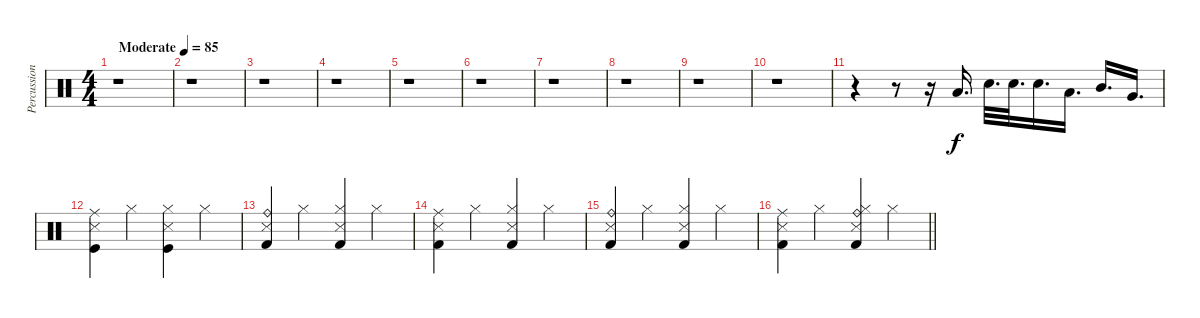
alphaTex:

\track ("Percussion" "Percussion") {instrument percussion}
\staff {score}
\articulation defaults
\ts (4 4)
\tempo (85 "Moderate")
\clef neutral
\ks c
r.1{dy f} |
r.1 |
r.1 |
r.1 |
r.1 |
r.1 |
r.1 |
r.1 |
r.1 |
r.1 |
r.4 r.8 r.16 "Low Tom (hit)".16{d} "Snare (hit) 2".32{d} "Snare (hit) 2".32{d} "Snare (hit) 2".16{d} "Low Tom (hit)".16{d} "Mid Tom (hit)".16{d} "Very Low Tom (hit)".16{d} |
("Ride (middle)" "Snare (side stick) 3" "Kick (hit)").4 "Hi-Hat (closed)".4 ("Hi-Hat (closed)" "Snare (side stick) 3" "Kick (hit)").4 "Hi-Hat (closed)".4 |
("Ride (bell)" "Snare (side stick) 3" "Kick (hit) 2").4 "Hi-Hat (closed)".4 ("Hi-Hat (closed)" "Snare (side stick) 3" "Kick (hit) 2").4 "Hi-Hat (closed)".4 |
("Ride (middle)" "Snare (side stick) 3" "Kick (hit) 2").4 "Hi-Hat (closed)".4 ("Hi-Hat (closed)" "Snare (side stick) 3" "Kick (hit) 2").4 "Hi-Hat (closed)".4 |
("Ride (bell)" "Snare (side stick) 3" "Kick (hit) 2").4 "Hi-Hat (closed)".4 ("Hi-Hat (closed)" "Snare (side stick) 3" "Kick (hit) 2").4 "Hi-Hat (closed)".4 |
\barLineRight lightlight
("Ride (middle)" "Snare (side stick) 3" "Kick (hit) 2").4 "Hi-Hat (closed)".4 ("Ride (bell)" "Hi-Hat (closed)" "Snare (side stick) 3" "Kick (hit) 2").4 "Hi-Hat (closed)".4
